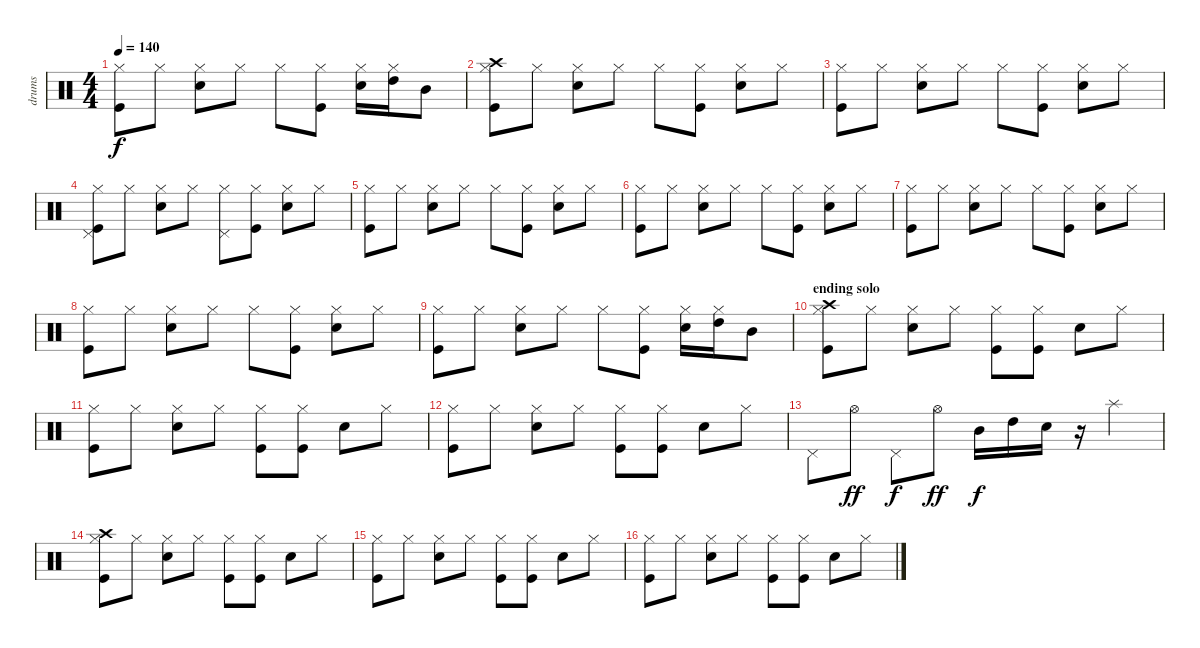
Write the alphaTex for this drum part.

\track ("drums" "drums") {instrument percussion}
\staff {score}
\articulation defaults
\ts (4 4)
\tempo 140
\clef neutral
\ks c
("Hi-Hat (closed)" "Kick (hit)").8{dy f} "Hi-Hat (closed)".8 ("Hi-Hat (closed)" "Snare (hit) 2").8 "Hi-Hat (closed)".8 "Hi-Hat (closed)".8 ("Hi-Hat (closed)" "Kick (hit)").8 ("Hi-Hat (closed)" "Snare (hit) 2").16 ("Hi-Hat (closed)" "High Tom (hit)").16 "Mid Tom (hit)".8 |
("Crash high (hit)" "Hi-Hat (closed)" "Kick (hit)").8 "Hi-Hat (closed)".8 ("Hi-Hat (closed)" "Snare (hit) 2").8 "Hi-Hat (closed)".8 "Hi-Hat (closed)".8 ("Hi-Hat (closed)" "Kick (hit)").8 ("Hi-Hat (closed)" "Snare (hit) 2").8 "Hi-Hat (closed)".8 |
("Hi-Hat (closed)" "Kick (hit)").8 "Hi-Hat (closed)".8 ("Hi-Hat (closed)" "Snare (hit) 2").8 "Hi-Hat (closed)".8 "Hi-Hat (closed)".8 ("Hi-Hat (closed)" "Kick (hit)").8 ("Hi-Hat (closed)" "Snare (hit) 2").8 "Hi-Hat (closed)".8 |
("Pedal Hi-Hat (hit)" "Hi-Hat (closed)" "Kick (hit)").8 "Hi-Hat (closed)".8 ("Hi-Hat (closed)" "Snare (hit) 2").8 "Hi-Hat (closed)".8 ("Pedal Hi-Hat (hit)" "Hi-Hat (closed)").8 ("Hi-Hat (closed)" "Kick (hit)").8 ("Hi-Hat (closed)" "Snare (hit) 2").8 "Hi-Hat (closed)".8 |
("Hi-Hat (closed)" "Kick (hit)").8 "Hi-Hat (closed)".8 ("Hi-Hat (closed)" "Snare (hit) 2").8 "Hi-Hat (closed)".8 "Hi-Hat (closed)".8 ("Hi-Hat (closed)" "Kick (hit)").8 ("Hi-Hat (closed)" "Snare (hit) 2").8 "Hi-Hat (closed)".8 |
("Hi-Hat (closed)" "Kick (hit)").8 "Hi-Hat (closed)".8 ("Hi-Hat (closed)" "Snare (hit) 2").8 "Hi-Hat (closed)".8 "Hi-Hat (closed)".8 ("Hi-Hat (closed)" "Kick (hit)").8 ("Hi-Hat (closed)" "Snare (hit) 2").8 "Hi-Hat (closed)".8 |
("Hi-Hat (closed)" "Kick (hit)").8 "Hi-Hat (closed)".8 ("Hi-Hat (closed)" "Snare (hit) 2").8 "Hi-Hat (closed)".8 "Hi-Hat (closed)".8 ("Hi-Hat (closed)" "Kick (hit)").8 ("Hi-Hat (closed)" "Snare (hit) 2").8 "Hi-Hat (closed)".8 |
("Hi-Hat (closed)" "Kick (hit)").8 "Hi-Hat (closed)".8 ("Hi-Hat (closed)" "Snare (hit) 2").8 "Hi-Hat (closed)".8 "Hi-Hat (closed)".8 ("Hi-Hat (closed)" "Kick (hit)").8 ("Hi-Hat (closed)" "Snare (hit) 2").8 "Hi-Hat (closed)".8 |
("Hi-Hat (closed)" "Kick (hit)").8 "Hi-Hat (closed)".8 ("Hi-Hat (closed)" "Snare (hit) 2").8 "Hi-Hat (closed)".8 "Hi-Hat (closed)".8 ("Hi-Hat (closed)" "Kick (hit)").8 ("Hi-Hat (closed)" "Snare (hit) 2").16 ("Hi-Hat (closed)" "High Tom (hit)").16 "Mid Tom (hit)".8 |
\section ("" "ending solo")
("Crash high (hit)" "Hi-Hat (closed)" "Kick (hit)").8 "Hi-Hat (closed)".8 ("Hi-Hat (closed)" "Snare (hit) 2").8 "Hi-Hat (closed)".8 ("Hi-Hat (closed)" "Kick (hit)").8 ("Hi-Hat (closed)" "Kick (hit)").8 "Snare (hit) 2".8 "Hi-Hat (closed)".8 |
("Hi-Hat (closed)" "Kick (hit)").8 "Hi-Hat (closed)".8 ("Hi-Hat (closed)" "Snare (hit) 2").8 "Hi-Hat (closed)".8 ("Hi-Hat (closed)" "Kick (hit)").8 ("Hi-Hat (closed)" "Kick (hit)").8 "Snare (hit) 2".8 "Hi-Hat (closed)".8 |
("Hi-Hat (closed)" "Kick (hit)").8 "Hi-Hat (closed)".8 ("Hi-Hat (closed)" "Snare (hit) 2").8 "Hi-Hat (closed)".8 ("Hi-Hat (closed)" "Kick (hit)").8 ("Hi-Hat (closed)" "Kick (hit)").8 "Snare (hit) 2".8 "Hi-Hat (closed)".8 |
"Pedal Hi-Hat (hit)".8 "Hi-Hat (open)".8{dy ff} "Pedal Hi-Hat (hit)".8{dy f} "Hi-Hat (open)".8{dy ff} "Mid Tom (hit)".16{dy f} "High Tom (hit)".16 "Snare (hit) 2".16 r.16 "Splash (hit)".4 |
("Crash high (hit)" "Hi-Hat (closed)" "Kick (hit)").8 "Hi-Hat (closed)".8 ("Hi-Hat (closed)" "Snare (hit) 2").8 "Hi-Hat (closed)".8 ("Hi-Hat (closed)" "Kick (hit)").8 ("Hi-Hat (closed)" "Kick (hit)").8 "Snare (hit) 2".8 "Hi-Hat (closed)".8 |
("Hi-Hat (closed)" "Kick (hit)").8 "Hi-Hat (closed)".8 ("Hi-Hat (closed)" "Snare (hit) 2").8 "Hi-Hat (closed)".8 ("Hi-Hat (closed)" "Kick (hit)").8 ("Hi-Hat (closed)" "Kick (hit)").8 "Snare (hit) 2".8 "Hi-Hat (closed)".8 |
("Hi-Hat (closed)" "Kick (hit)").8 "Hi-Hat (closed)".8 ("Hi-Hat (closed)" "Snare (hit) 2").8 "Hi-Hat (closed)".8 ("Hi-Hat (closed)" "Kick (hit)").8 ("Hi-Hat (closed)" "Kick (hit)").8 "Snare (hit) 2".8 "Hi-Hat (closed)".8
